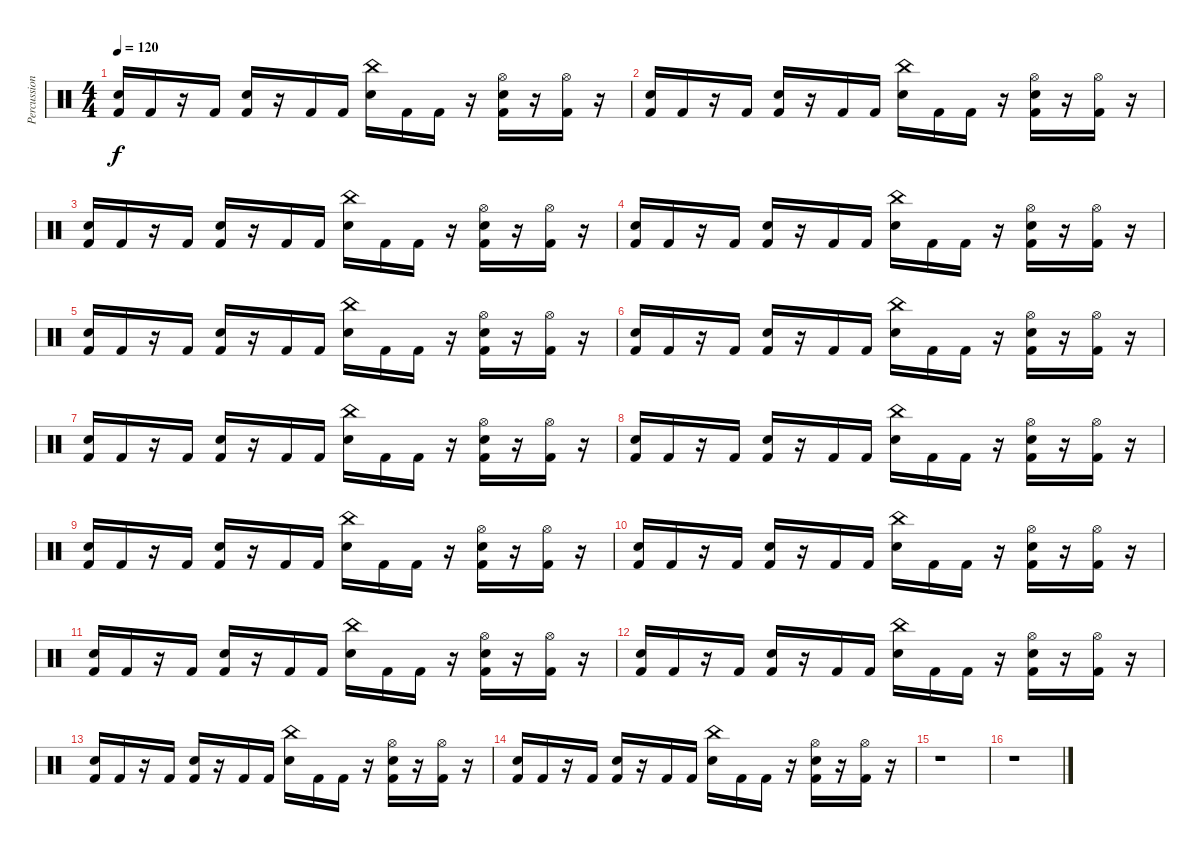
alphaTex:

\track ("Percussion" "Percussion") {instrument percussion}
\staff {score}
\articulation defaults
\ts (4 4)
\tempo 120
\clef neutral
\ks c
("Kick (hit) 2" "Electric Snare (hit)").16{dy f} "Kick (hit) 2".16 r.16 "Kick (hit) 2".16 ("Kick (hit) 2" "Electric Snare (hit)").16 r.16 "Kick (hit) 2".16 "Kick (hit) 2".16 ("Electric Snare (hit)" "China (hit)").16 "Kick (hit) 2".16 "Kick (hit) 2".16 r.16 ("Kick (hit) 2" "Electric Snare (hit)" "Hi-Hat (open)").16 r.16 ("Kick (hit) 2" "Hi-Hat (open)").16 r.16 |
("Kick (hit) 2" "Electric Snare (hit)").16 "Kick (hit) 2".16 r.16 "Kick (hit) 2".16 ("Kick (hit) 2" "Electric Snare (hit)").16 r.16 "Kick (hit) 2".16 "Kick (hit) 2".16 ("Electric Snare (hit)" "China (hit)").16 "Kick (hit) 2".16 "Kick (hit) 2".16 r.16 ("Kick (hit) 2" "Electric Snare (hit)" "Hi-Hat (open)").16 r.16 ("Kick (hit) 2" "Hi-Hat (open)").16 r.16 |
("Kick (hit) 2" "Electric Snare (hit)").16 "Kick (hit) 2".16 r.16 "Kick (hit) 2".16 ("Kick (hit) 2" "Electric Snare (hit)").16 r.16 "Kick (hit) 2".16 "Kick (hit) 2".16 ("Electric Snare (hit)" "China (hit)").16 "Kick (hit) 2".16 "Kick (hit) 2".16 r.16 ("Kick (hit) 2" "Electric Snare (hit)" "Hi-Hat (open)").16 r.16 ("Kick (hit) 2" "Hi-Hat (open)").16 r.16 |
("Kick (hit) 2" "Electric Snare (hit)").16 "Kick (hit) 2".16 r.16 "Kick (hit) 2".16 ("Kick (hit) 2" "Electric Snare (hit)").16 r.16 "Kick (hit) 2".16 "Kick (hit) 2".16 ("Electric Snare (hit)" "China (hit)").16 "Kick (hit) 2".16 "Kick (hit) 2".16 r.16 ("Kick (hit) 2" "Electric Snare (hit)" "Hi-Hat (open)").16 r.16 ("Kick (hit) 2" "Hi-Hat (open)").16 r.16 |
("Kick (hit) 2" "Electric Snare (hit)").16 "Kick (hit) 2".16 r.16 "Kick (hit) 2".16 ("Kick (hit) 2" "Electric Snare (hit)").16 r.16 "Kick (hit) 2".16 "Kick (hit) 2".16 ("Electric Snare (hit)" "China (hit)").16 "Kick (hit) 2".16 "Kick (hit) 2".16 r.16 ("Kick (hit) 2" "Electric Snare (hit)" "Hi-Hat (open)").16 r.16 ("Kick (hit) 2" "Hi-Hat (open)").16 r.16 |
("Kick (hit) 2" "Electric Snare (hit)").16 "Kick (hit) 2".16 r.16 "Kick (hit) 2".16 ("Kick (hit) 2" "Electric Snare (hit)").16 r.16 "Kick (hit) 2".16 "Kick (hit) 2".16 ("Electric Snare (hit)" "China (hit)").16 "Kick (hit) 2".16 "Kick (hit) 2".16 r.16 ("Kick (hit) 2" "Electric Snare (hit)" "Hi-Hat (open)").16 r.16 ("Kick (hit) 2" "Hi-Hat (open)").16 r.16 |
("Kick (hit) 2" "Electric Snare (hit)").16 "Kick (hit) 2".16 r.16 "Kick (hit) 2".16 ("Kick (hit) 2" "Electric Snare (hit)").16 r.16 "Kick (hit) 2".16 "Kick (hit) 2".16 ("Electric Snare (hit)" "China (hit)").16 "Kick (hit) 2".16 "Kick (hit) 2".16 r.16 ("Kick (hit) 2" "Electric Snare (hit)" "Hi-Hat (open)").16 r.16 ("Kick (hit) 2" "Hi-Hat (open)").16 r.16 |
("Kick (hit) 2" "Electric Snare (hit)").16 "Kick (hit) 2".16 r.16 "Kick (hit) 2".16 ("Kick (hit) 2" "Electric Snare (hit)").16 r.16 "Kick (hit) 2".16 "Kick (hit) 2".16 ("Electric Snare (hit)" "China (hit)").16 "Kick (hit) 2".16 "Kick (hit) 2".16 r.16 ("Kick (hit) 2" "Electric Snare (hit)" "Hi-Hat (open)").16 r.16 ("Kick (hit) 2" "Hi-Hat (open)").16 r.16 |
("Kick (hit) 2" "Electric Snare (hit)").16 "Kick (hit) 2".16 r.16 "Kick (hit) 2".16 ("Kick (hit) 2" "Electric Snare (hit)").16 r.16 "Kick (hit) 2".16 "Kick (hit) 2".16 ("Electric Snare (hit)" "China (hit)").16 "Kick (hit) 2".16 "Kick (hit) 2".16 r.16 ("Kick (hit) 2" "Electric Snare (hit)" "Hi-Hat (open)").16 r.16 ("Kick (hit) 2" "Hi-Hat (open)").16 r.16 |
("Kick (hit) 2" "Electric Snare (hit)").16 "Kick (hit) 2".16 r.16 "Kick (hit) 2".16 ("Kick (hit) 2" "Electric Snare (hit)").16 r.16 "Kick (hit) 2".16 "Kick (hit) 2".16 ("Electric Snare (hit)" "China (hit)").16 "Kick (hit) 2".16 "Kick (hit) 2".16 r.16 ("Kick (hit) 2" "Electric Snare (hit)" "Hi-Hat (open)").16 r.16 ("Kick (hit) 2" "Hi-Hat (open)").16 r.16 |
("Kick (hit) 2" "Electric Snare (hit)").16 "Kick (hit) 2".16 r.16 "Kick (hit) 2".16 ("Kick (hit) 2" "Electric Snare (hit)").16 r.16 "Kick (hit) 2".16 "Kick (hit) 2".16 ("Electric Snare (hit)" "China (hit)").16 "Kick (hit) 2".16 "Kick (hit) 2".16 r.16 ("Kick (hit) 2" "Electric Snare (hit)" "Hi-Hat (open)").16 r.16 ("Kick (hit) 2" "Hi-Hat (open)").16 r.16 |
("Kick (hit) 2" "Electric Snare (hit)").16 "Kick (hit) 2".16 r.16 "Kick (hit) 2".16 ("Kick (hit) 2" "Electric Snare (hit)").16 r.16 "Kick (hit) 2".16 "Kick (hit) 2".16 ("Electric Snare (hit)" "China (hit)").16 "Kick (hit) 2".16 "Kick (hit) 2".16 r.16 ("Kick (hit) 2" "Electric Snare (hit)" "Hi-Hat (open)").16 r.16 ("Kick (hit) 2" "Hi-Hat (open)").16 r.16 |
("Kick (hit) 2" "Electric Snare (hit)").16 "Kick (hit) 2".16 r.16 "Kick (hit) 2".16 ("Kick (hit) 2" "Electric Snare (hit)").16 r.16 "Kick (hit) 2".16 "Kick (hit) 2".16 ("Electric Snare (hit)" "China (hit)").16 "Kick (hit) 2".16 "Kick (hit) 2".16 r.16 ("Kick (hit) 2" "Electric Snare (hit)" "Hi-Hat (open)").16 r.16 ("Kick (hit) 2" "Hi-Hat (open)").16 r.16 |
("Kick (hit) 2" "Electric Snare (hit)").16 "Kick (hit) 2".16 r.16 "Kick (hit) 2".16 ("Kick (hit) 2" "Electric Snare (hit)").16 r.16 "Kick (hit) 2".16 "Kick (hit) 2".16 ("Electric Snare (hit)" "China (hit)").16 "Kick (hit) 2".16 "Kick (hit) 2".16 r.16 ("Kick (hit) 2" "Electric Snare (hit)" "Hi-Hat (open)").16 r.16 ("Kick (hit) 2" "Hi-Hat (open)").16 r.16 |
r.1 |
r.1
